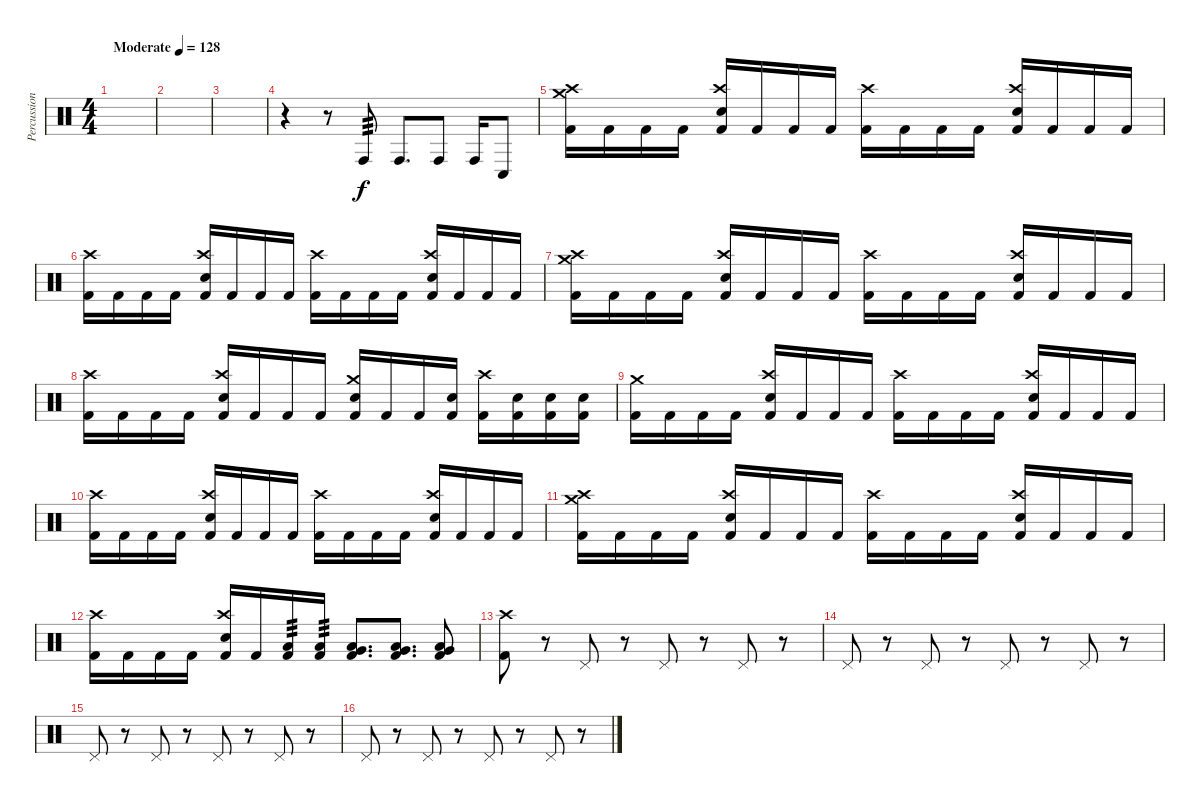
\track ("Percussion" "Percussion") {instrument percussion}
\staff {score}
\articulation defaults
\ts (4 4)
\tempo (128 "Moderate")
\clef neutral
\ks c
|
|
|
r.4 r.8 "Conga high (hit)".8{tp 3} "Conga high (hit)".8{d} "Conga high (hit)".8 "Conga high (hit)".16 "Conga low (hit)".8 |
("Kick (hit) 2" "Crash medium (hit)" "Crash high (hit)").16 "Kick (hit) 2".16 "Kick (hit) 2".16 "Kick (hit) 2".16 ("Kick (hit) 2" "Electric Snare (hit)" "Crash high (hit)").16 "Kick (hit) 2".16 "Kick (hit) 2".16 "Kick (hit) 2".16 ("Kick (hit) 2" "Crash high (hit)").16 "Kick (hit) 2".16 "Kick (hit) 2".16 "Kick (hit) 2".16 ("Kick (hit) 2" "Electric Snare (hit)" "Crash high (hit)").16 "Kick (hit) 2".16 "Kick (hit) 2".16 "Kick (hit) 2".16 |
("Kick (hit) 2" "Crash high (hit)").16 "Kick (hit) 2".16 "Kick (hit) 2".16 "Kick (hit) 2".16 ("Kick (hit) 2" "Electric Snare (hit)" "Crash high (hit)").16 "Kick (hit) 2".16 "Kick (hit) 2".16 "Kick (hit) 2".16 ("Kick (hit) 2" "Crash high (hit)").16 "Kick (hit) 2".16 "Kick (hit) 2".16 "Kick (hit) 2".16 ("Kick (hit) 2" "Electric Snare (hit)" "Crash high (hit)").16 "Kick (hit) 2".16 "Kick (hit) 2".16 "Kick (hit) 2".16 |
("Kick (hit) 2" "Crash medium (hit)" "Crash high (hit)").16 "Kick (hit) 2".16 "Kick (hit) 2".16 "Kick (hit) 2".16 ("Kick (hit) 2" "Electric Snare (hit)" "Crash high (hit)").16 "Kick (hit) 2".16 "Kick (hit) 2".16 "Kick (hit) 2".16 ("Kick (hit) 2" "Crash high (hit)").16 "Kick (hit) 2".16 "Kick (hit) 2".16 "Kick (hit) 2".16 ("Kick (hit) 2" "Electric Snare (hit)" "Crash high (hit)").16 "Kick (hit) 2".16 "Kick (hit) 2".16 "Kick (hit) 2".16 |
("Kick (hit) 2" "Crash high (hit)").16 "Kick (hit) 2".16 "Kick (hit) 2".16 "Kick (hit) 2".16 ("Kick (hit) 2" "Electric Snare (hit)" "Crash high (hit)").16 "Kick (hit) 2".16 "Kick (hit) 2".16 "Kick (hit) 2".16 ("Kick (hit) 2" "Electric Snare (hit)" "Crash medium (hit)").16 "Kick (hit) 2".16 "Kick (hit) 2".16 ("Kick (hit) 2" "Electric Snare (hit)").16 ("Kick (hit) 2" "Crash high (hit)").16 ("Kick (hit) 2" "Electric Snare (hit)").16 ("Kick (hit) 2" "Electric Snare (hit)").16 ("Kick (hit) 2" "Electric Snare (hit)").16 |
("Kick (hit) 2" "Crash medium (hit)").16 "Kick (hit) 2".16 "Kick (hit) 2".16 "Kick (hit) 2".16 ("Kick (hit) 2" "Electric Snare (hit)" "Crash high (hit)").16 "Kick (hit) 2".16 "Kick (hit) 2".16 "Kick (hit) 2".16 ("Kick (hit) 2" "Crash high (hit)").16 "Kick (hit) 2".16 "Kick (hit) 2".16 "Kick (hit) 2".16 ("Kick (hit) 2" "Electric Snare (hit)" "Crash high (hit)").16 "Kick (hit) 2".16 "Kick (hit) 2".16 "Kick (hit) 2".16 |
("Kick (hit) 2" "Crash high (hit)").16 "Kick (hit) 2".16 "Kick (hit) 2".16 "Kick (hit) 2".16 ("Kick (hit) 2" "Electric Snare (hit)" "Crash high (hit)").16 "Kick (hit) 2".16 "Kick (hit) 2".16 "Kick (hit) 2".16 ("Kick (hit) 2" "Crash high (hit)").16 "Kick (hit) 2".16 "Kick (hit) 2".16 "Kick (hit) 2".16 ("Kick (hit) 2" "Electric Snare (hit)" "Crash high (hit)").16 "Kick (hit) 2".16 "Kick (hit) 2".16 "Kick (hit) 2".16 |
("Kick (hit) 2" "Crash medium (hit)" "Crash high (hit)").16 "Kick (hit) 2".16 "Kick (hit) 2".16 "Kick (hit) 2".16 ("Kick (hit) 2" "Electric Snare (hit)" "Crash high (hit)").16 "Kick (hit) 2".16 "Kick (hit) 2".16 "Kick (hit) 2".16 ("Kick (hit) 2" "Crash high (hit)").16 "Kick (hit) 2".16 "Kick (hit) 2".16 "Kick (hit) 2".16 ("Kick (hit) 2" "Electric Snare (hit)" "Crash high (hit)").16 "Kick (hit) 2".16 "Kick (hit) 2".16 "Kick (hit) 2".16 |
("Kick (hit) 2" "Crash high (hit)").16 "Kick (hit) 2".16 "Kick (hit) 2".16 "Kick (hit) 2".16 ("Kick (hit) 2" "Electric Snare (hit)" "Crash high (hit)").16 "Kick (hit) 2".16 ("Kick (hit) 2" "Low Tom (hit)").16{tp 3} ("Kick (hit) 2" "Low Tom (hit)").16{tp 3} ("Kick (hit) 2" "Low Tom (hit)" "Very Low Tom (hit)").8{d} ("Kick (hit) 2" "Low Tom (hit)" "Very Low Tom (hit)").8{d} ("Kick (hit) 2" "Low Tom (hit)" "Very Low Tom (hit)").8 |
("Kick (hit) 2" "Crash high (hit)").8 r.8 "Pedal Hi-Hat (hit)".8 r.8 "Pedal Hi-Hat (hit)".8 r.8 "Pedal Hi-Hat (hit)".8 r.8 |
"Pedal Hi-Hat (hit)".8 r.8 "Pedal Hi-Hat (hit)".8 r.8 "Pedal Hi-Hat (hit)".8 r.8 "Pedal Hi-Hat (hit)".8 r.8 |
"Pedal Hi-Hat (hit)".8 r.8 "Pedal Hi-Hat (hit)".8 r.8 "Pedal Hi-Hat (hit)".8 r.8 "Pedal Hi-Hat (hit)".8 r.8 |
"Pedal Hi-Hat (hit)".8 r.8 "Pedal Hi-Hat (hit)".8 r.8 "Pedal Hi-Hat (hit)".8 r.8 "Pedal Hi-Hat (hit)".8 r.8
